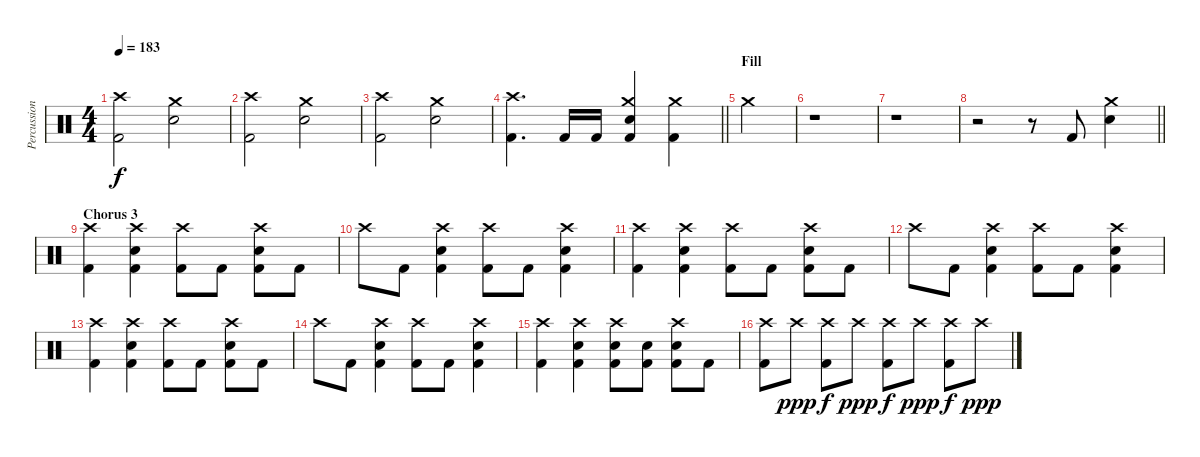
\track ("Percussion" "Percussion") {instrument percussion}
\staff {score}
\articulation defaults
\ts (4 4)
\tempo 183
\clef neutral
\ks c
("Crash high (hit)" "Kick (hit) 2").2{dy f} ("Crash medium (hit)" "Electric Snare (hit)").2 |
("Crash high (hit)" "Kick (hit) 2").2 ("Crash medium (hit)" "Electric Snare (hit)").2 |
("Crash high (hit)" "Kick (hit) 2").2 ("Crash medium (hit)" "Electric Snare (hit)").2 |
\barLineRight lightlight
("Crash high (hit)" "Kick (hit) 2").4{d} "Kick (hit) 2".16 "Kick (hit) 2".16 ("Crash medium (hit)" "Electric Snare (hit)" "Kick (hit) 2").4 ("Crash medium (hit)" "Kick (hit) 2").4 |
\section ("" "Fill")
"Crash medium (hit)".4 |
r.1 |
r.1 |
\barLineRight lightlight
r.2 r.8 "Kick (hit) 2".8 ("Crash medium (hit)" "Electric Snare (hit)").4 |
\section ("" "Chorus 3")
\ks aminor
("Crash high (hit)" "Kick (hit) 2").4 ("Crash high (hit)" "Electric Snare (hit)" "Kick (hit) 2").4 ("Crash high (hit)" "Kick (hit) 2").8 "Kick (hit) 2".8 ("Crash high (hit)" "Electric Snare (hit)" "Kick (hit) 2").8 "Kick (hit) 2".8 |
"Crash high (hit)".8 "Kick (hit) 2".8 ("Crash high (hit)" "Electric Snare (hit)" "Kick (hit) 2").4 ("Crash high (hit)" "Kick (hit) 2").8 "Kick (hit) 2".8 ("Crash high (hit)" "Electric Snare (hit)" "Kick (hit) 2").4 |
("Crash high (hit)" "Kick (hit) 2").4 ("Crash high (hit)" "Electric Snare (hit)" "Kick (hit) 2").4 ("Crash high (hit)" "Kick (hit) 2").8 "Kick (hit) 2".8 ("Crash high (hit)" "Electric Snare (hit)" "Kick (hit) 2").8 "Kick (hit) 2".8 |
"Crash high (hit)".8 "Kick (hit) 2".8 ("Crash high (hit)" "Electric Snare (hit)" "Kick (hit) 2").4 ("Crash high (hit)" "Kick (hit) 2").8 "Kick (hit) 2".8 ("Crash high (hit)" "Electric Snare (hit)" "Kick (hit) 2").4 |
("Crash high (hit)" "Kick (hit) 2").4 ("Crash high (hit)" "Electric Snare (hit)" "Kick (hit) 2").4 ("Crash high (hit)" "Kick (hit) 2").8 "Kick (hit) 2".8 ("Crash high (hit)" "Electric Snare (hit)" "Kick (hit) 2").8 "Kick (hit) 2".8 |
"Crash high (hit)".8 "Kick (hit) 2".8 ("Crash high (hit)" "Electric Snare (hit)" "Kick (hit) 2").4 ("Crash high (hit)" "Kick (hit) 2").8 "Kick (hit) 2".8 ("Crash high (hit)" "Electric Snare (hit)" "Kick (hit) 2").4 |
("Crash high (hit)" "Kick (hit) 2").4 ("Crash high (hit)" "Electric Snare (hit)" "Kick (hit) 2").4 ("Crash high (hit)" "Electric Snare (hit)" "Kick (hit) 2").8 ("Electric Snare (hit)" "Kick (hit) 2").8 ("Crash high (hit)" "Electric Snare (hit)" "Kick (hit) 2").8 "Kick (hit) 2".8 |
("Crash high (hit)" "Kick (hit) 2").8 "Crash high (hit)".8{dy ppp} ("Crash high (hit)" "Kick (hit) 2").8{dy f} "Crash high (hit)".8{dy ppp} ("Crash high (hit)" "Kick (hit) 2").8{dy f} "Crash high (hit)".8{dy ppp} ("Crash high (hit)" "Kick (hit) 2").8{dy f} "Crash high (hit)".8{dy ppp}
